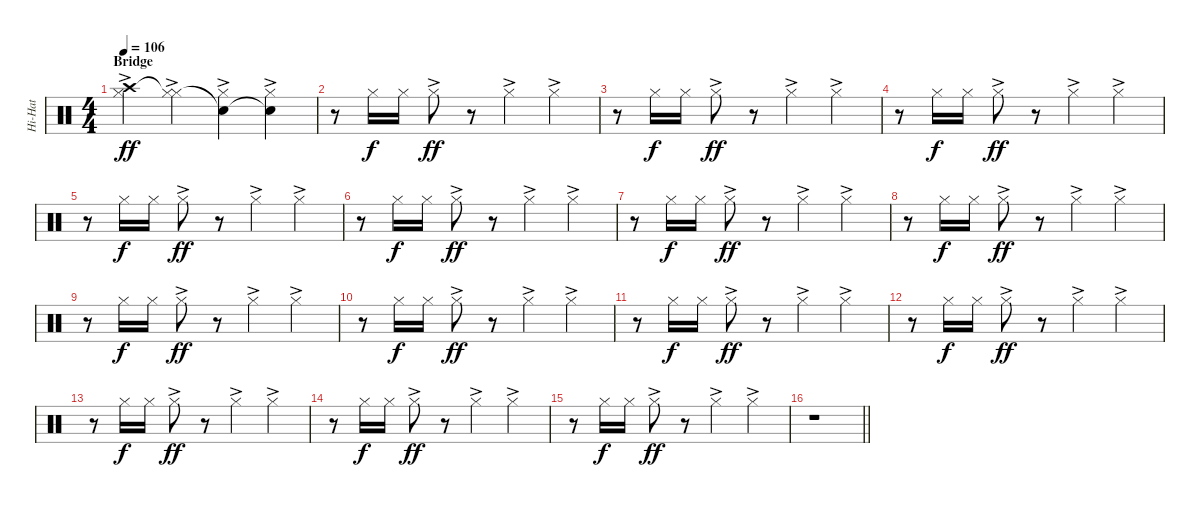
\track ("Hi-Hat" "Hi-Hat") {instrument percussion}
\staff {score}
\articulation defaults
\ts (4 4)
\section ("" "Bridge")
\tempo 106
\clef neutral
\ks c
("Hi-Hat (closed)"{ac} "Crash high (hit)").4{dy ff} ("Hi-Hat (closed)"{ac} "Hi-Hat (closed)"{t}).4 ("Hi-Hat (closed)"{ac} "Snare (hit)"{t}).4 ("Hi-Hat (closed)"{ac} "Snare (hit)"{t}).4 |
r.8 "Hi-Hat (closed)".16{dy f} "Hi-Hat (closed)".16 "Hi-Hat (closed)"{ac}.8{dy ff} r.8 "Hi-Hat (closed)"{ac}.4 "Hi-Hat (closed)"{ac}.4 |
r.8 "Hi-Hat (closed)".16{dy f} "Hi-Hat (closed)".16 "Hi-Hat (closed)"{ac}.8{dy ff} r.8 "Hi-Hat (closed)"{ac}.4 "Hi-Hat (closed)"{ac}.4 |
r.8 "Hi-Hat (closed)".16{dy f} "Hi-Hat (closed)".16 "Hi-Hat (closed)"{ac}.8{dy ff} r.8 "Hi-Hat (closed)"{ac}.4 "Hi-Hat (closed)"{ac}.4 |
r.8 "Hi-Hat (closed)".16{dy f} "Hi-Hat (closed)".16 "Hi-Hat (closed)"{ac}.8{dy ff} r.8 "Hi-Hat (closed)"{ac}.4 "Hi-Hat (closed)"{ac}.4 |
r.8 "Hi-Hat (closed)".16{dy f} "Hi-Hat (closed)".16 "Hi-Hat (closed)"{ac}.8{dy ff} r.8 "Hi-Hat (closed)"{ac}.4 "Hi-Hat (closed)"{ac}.4 |
r.8 "Hi-Hat (closed)".16{dy f} "Hi-Hat (closed)".16 "Hi-Hat (closed)"{ac}.8{dy ff} r.8 "Hi-Hat (closed)"{ac}.4 "Hi-Hat (closed)"{ac}.4 |
r.8 "Hi-Hat (closed)".16{dy f} "Hi-Hat (closed)".16 "Hi-Hat (closed)"{ac}.8{dy ff} r.8 "Hi-Hat (closed)"{ac}.4 "Hi-Hat (closed)"{ac}.4 |
r.8 "Hi-Hat (closed)".16{dy f} "Hi-Hat (closed)".16 "Hi-Hat (closed)"{ac}.8{dy ff} r.8 "Hi-Hat (closed)"{ac}.4 "Hi-Hat (closed)"{ac}.4 |
r.8 "Hi-Hat (closed)".16{dy f} "Hi-Hat (closed)".16 "Hi-Hat (closed)"{ac}.8{dy ff} r.8 "Hi-Hat (closed)"{ac}.4 "Hi-Hat (closed)"{ac}.4 |
r.8 "Hi-Hat (closed)".16{dy f} "Hi-Hat (closed)".16 "Hi-Hat (closed)"{ac}.8{dy ff} r.8 "Hi-Hat (closed)"{ac}.4 "Hi-Hat (closed)"{ac}.4 |
r.8 "Hi-Hat (closed)".16{dy f} "Hi-Hat (closed)".16 "Hi-Hat (closed)"{ac}.8{dy ff} r.8 "Hi-Hat (closed)"{ac}.4 "Hi-Hat (closed)"{ac}.4 |
r.8 "Hi-Hat (closed)".16{dy f} "Hi-Hat (closed)".16 "Hi-Hat (closed)"{ac}.8{dy ff} r.8 "Hi-Hat (closed)"{ac}.4 "Hi-Hat (closed)"{ac}.4 |
r.8 "Hi-Hat (closed)".16{dy f} "Hi-Hat (closed)".16 "Hi-Hat (closed)"{ac}.8{dy ff} r.8 "Hi-Hat (closed)"{ac}.4 "Hi-Hat (closed)"{ac}.4 |
r.8 "Hi-Hat (closed)".16{dy f} "Hi-Hat (closed)".16 "Hi-Hat (closed)"{ac}.8{dy ff} r.8 "Hi-Hat (closed)"{ac}.4 "Hi-Hat (closed)"{ac}.4 |
\barLineRight lightlight
r.1
